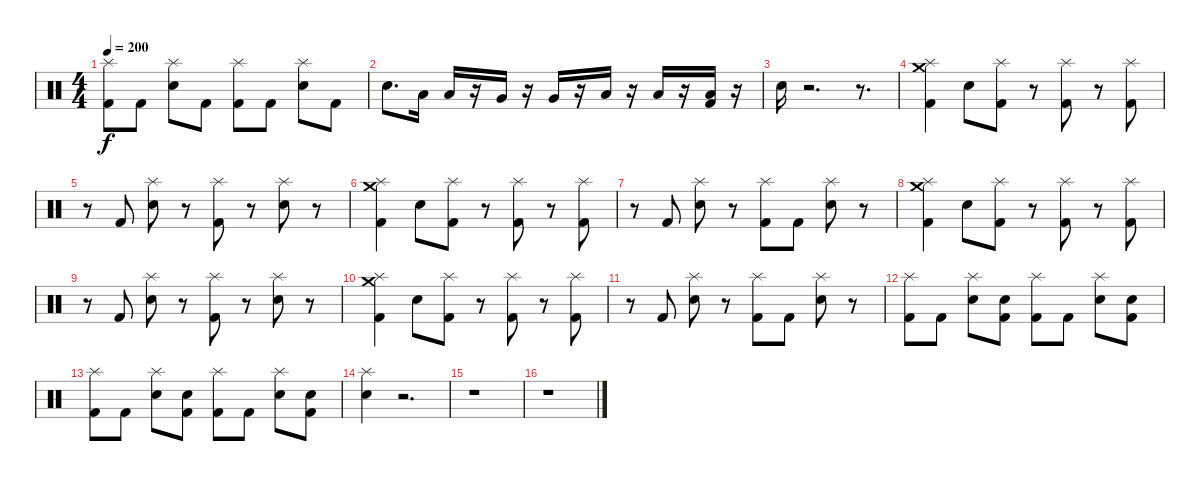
\track "" {instrument percussion}
\staff {score}
\articulation defaults
\ts (4 4)
\tempo 200
\clef neutral
\ks c
("Splash (hit)" "Kick (hit) 2").8{dy f} "Kick (hit) 2".8 ("Splash (hit)" "Electric Snare (hit)").8 "Kick (hit) 2".8 ("Splash (hit)" "Kick (hit) 2").8 "Kick (hit) 2".8 ("Splash (hit)" "Electric Snare (hit)").8 "Kick (hit) 2".8 |
"Electric Snare (hit)".8{d} "Low Tom (hit)".16 "Low Tom (hit)".16 r.16 "Very Low Tom (hit)".16 r.16 "Very Low Tom (hit)".16 r.16 "Low Tom (hit)".16 r.16 "Low Floor Tom (hit)".16 r.16 ("Kick (hit) 2" "Low Floor Tom (hit)").16 r.16 |
"Electric Snare (hit)".16 r.2{d} r.8{d} |
("Splash (hit)" "Crash medium (hit)" "Kick (hit) 2").4 "Electric Snare (hit)".8 ("Splash (hit)" "Kick (hit) 2").8 r.8 ("Splash (hit)" "Kick (hit) 2").8 r.8 ("Splash (hit)" "Kick (hit) 2").8 |
r.8 "Kick (hit) 2".8 ("Splash (hit)" "Electric Snare (hit)").8 r.8 ("Splash (hit)" "Kick (hit) 2").8 r.8 ("Splash (hit)" "Electric Snare (hit)").8 r.8 |
("Splash (hit)" "Crash medium (hit)" "Kick (hit) 2").4 "Electric Snare (hit)".8 ("Splash (hit)" "Kick (hit) 2").8 r.8 ("Splash (hit)" "Kick (hit) 2").8 r.8 ("Splash (hit)" "Kick (hit) 2").8 |
r.8 "Kick (hit) 2".8 ("Splash (hit)" "Electric Snare (hit)").8 r.8 ("Splash (hit)" "Kick (hit) 2").8 "Kick (hit) 2".8 ("Splash (hit)" "Electric Snare (hit)").8 r.8 |
("Splash (hit)" "Crash medium (hit)" "Kick (hit) 2").4 "Electric Snare (hit)".8 ("Splash (hit)" "Kick (hit) 2").8 r.8 ("Splash (hit)" "Kick (hit) 2").8 r.8 ("Splash (hit)" "Kick (hit) 2").8 |
r.8 "Kick (hit) 2".8 ("Splash (hit)" "Electric Snare (hit)").8 r.8 ("Splash (hit)" "Kick (hit) 2").8 r.8 ("Splash (hit)" "Electric Snare (hit)").8 r.8 |
("Splash (hit)" "Crash medium (hit)" "Kick (hit) 2").4 "Electric Snare (hit)".8 ("Splash (hit)" "Kick (hit) 2").8 r.8 ("Splash (hit)" "Kick (hit) 2").8 r.8 ("Splash (hit)" "Kick (hit) 2").8 |
r.8 "Kick (hit) 2".8 ("Splash (hit)" "Electric Snare (hit)").8 r.8 ("Splash (hit)" "Kick (hit) 2").8 "Kick (hit) 2".8 ("Splash (hit)" "Electric Snare (hit)").8 r.8 |
("Splash (hit)" "Kick (hit) 2").8 "Kick (hit) 2".8 ("Splash (hit)" "Electric Snare (hit)").8 ("Electric Snare (hit)" "Kick (hit) 2").8 ("Splash (hit)" "Kick (hit) 2").8 "Kick (hit) 2".8 ("Splash (hit)" "Electric Snare (hit)").8 ("Electric Snare (hit)" "Kick (hit) 2").8 |
("Splash (hit)" "Kick (hit) 2").8 "Kick (hit) 2".8 ("Splash (hit)" "Electric Snare (hit)").8 ("Electric Snare (hit)" "Kick (hit) 2").8 ("Splash (hit)" "Kick (hit) 2").8 "Kick (hit) 2".8 ("Splash (hit)" "Electric Snare (hit)").8 ("Electric Snare (hit)" "Kick (hit) 2").8 |
("Splash (hit)" "Electric Snare (hit)").4 r.2{d} |
r.1 |
r.1
